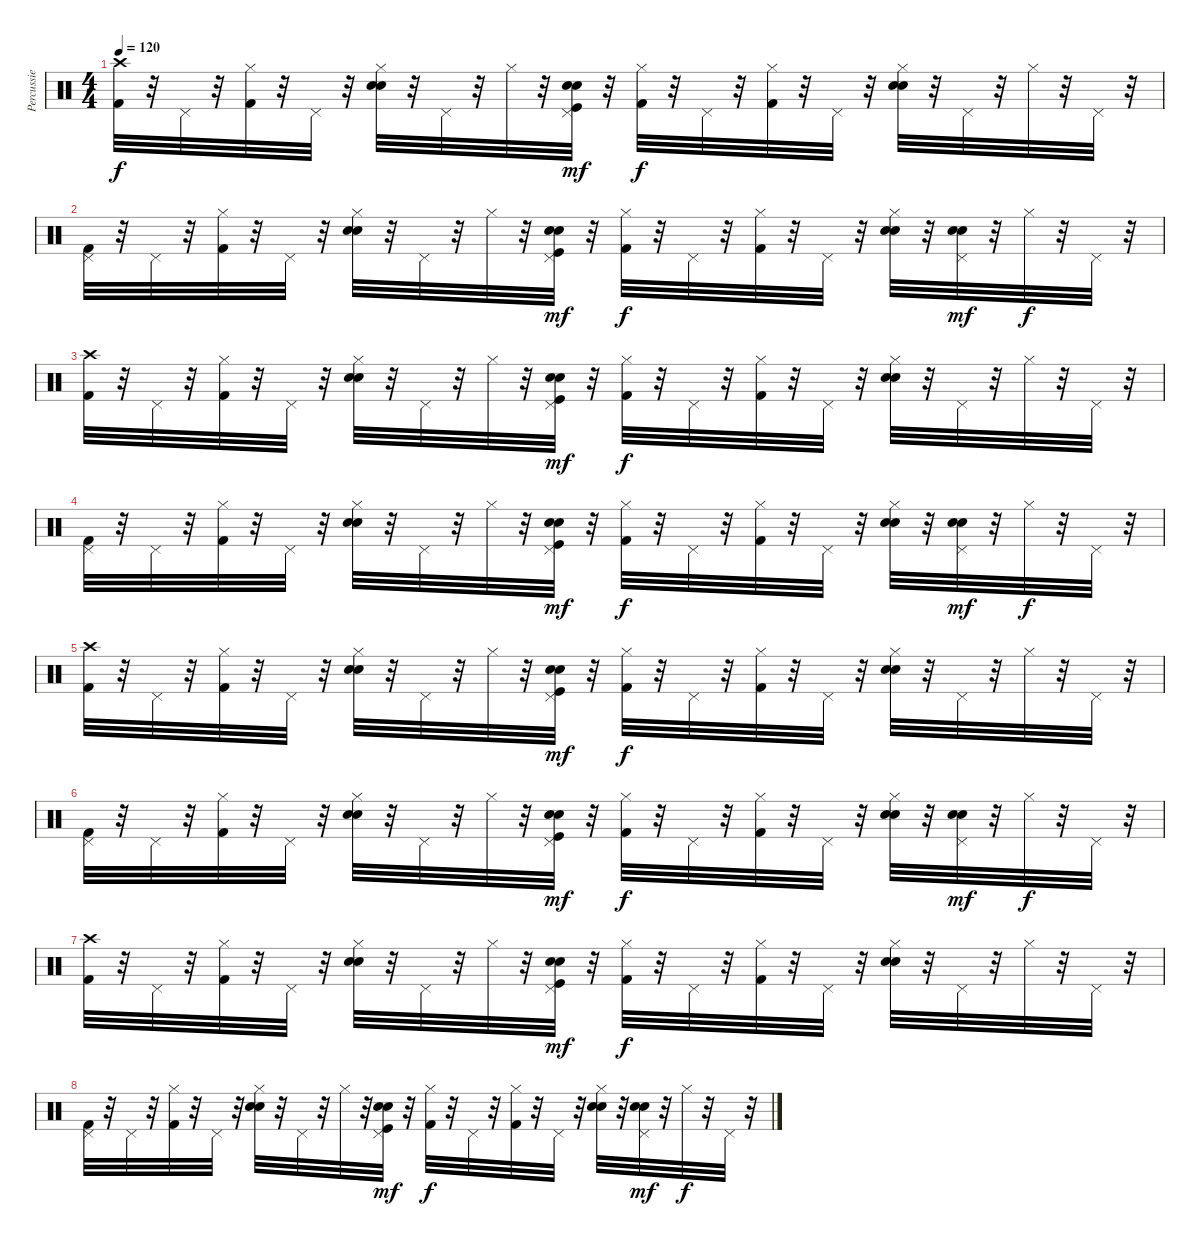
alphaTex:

\track ("Percussie" "Percussie") {instrument percussion}
\staff {score}
\articulation defaults
\ts (4 4)
\tempo 120
\clef neutral
\ks c
("Crash high (hit)" "Kick (hit) 2").32{dy f} r.32 "Pedal Hi-Hat (hit)".32 r.32 ("Hi-Hat (closed)" "Kick (hit) 2").32 r.32 "Pedal Hi-Hat (hit)".32 r.32 ("Hi-Hat (closed)" "Hand Clap (hit)" "Electric Snare (hit)").32 r.32 "Pedal Hi-Hat (hit)".32 r.32 "Hi-Hat (closed)".32 r.32 ("Hand Clap (hit)" "Electric Snare (hit)" "Pedal Hi-Hat (hit)" "Kick (hit)").32{dy mf} r.32 ("Hi-Hat (closed)" "Kick (hit) 2").32{dy f} r.32 "Pedal Hi-Hat (hit)".32 r.32 ("Hi-Hat (closed)" "Kick (hit) 2").32 r.32 "Pedal Hi-Hat (hit)".32 r.32 ("Hi-Hat (closed)" "Hand Clap (hit)" "Electric Snare (hit)").32 r.32 "Pedal Hi-Hat (hit)".32 r.32 "Hi-Hat (closed)".32 r.32 "Pedal Hi-Hat (hit)".32 r.32 |
("Pedal Hi-Hat (hit)" "Kick (hit) 2").32 r.32 "Pedal Hi-Hat (hit)".32 r.32 ("Hi-Hat (closed)" "Kick (hit) 2").32 r.32 "Pedal Hi-Hat (hit)".32 r.32 ("Hi-Hat (closed)" "Hand Clap (hit)" "Electric Snare (hit)").32 r.32 "Pedal Hi-Hat (hit)".32 r.32 "Hi-Hat (closed)".32 r.32 ("Hand Clap (hit)" "Electric Snare (hit)" "Pedal Hi-Hat (hit)" "Kick (hit)").32{dy mf} r.32 ("Hi-Hat (closed)" "Kick (hit) 2").32{dy f} r.32 "Pedal Hi-Hat (hit)".32 r.32 ("Hi-Hat (closed)" "Kick (hit) 2").32 r.32 "Pedal Hi-Hat (hit)".32 r.32 ("Hi-Hat (closed)" "Hand Clap (hit)" "Electric Snare (hit)").32 r.32 ("Hand Clap (hit)" "Electric Snare (hit)" "Pedal Hi-Hat (hit)").32{dy mf} r.32 "Hi-Hat (closed)".32{dy f} r.32 "Pedal Hi-Hat (hit)".32 r.32 |
("Crash high (hit)" "Kick (hit) 2").32 r.32 "Pedal Hi-Hat (hit)".32 r.32 ("Hi-Hat (closed)" "Kick (hit) 2").32 r.32 "Pedal Hi-Hat (hit)".32 r.32 ("Hi-Hat (closed)" "Hand Clap (hit)" "Electric Snare (hit)").32 r.32 "Pedal Hi-Hat (hit)".32 r.32 "Hi-Hat (closed)".32 r.32 ("Hand Clap (hit)" "Electric Snare (hit)" "Pedal Hi-Hat (hit)" "Kick (hit)").32{dy mf} r.32 ("Hi-Hat (closed)" "Kick (hit) 2").32{dy f} r.32 "Pedal Hi-Hat (hit)".32 r.32 ("Hi-Hat (closed)" "Kick (hit) 2").32 r.32 "Pedal Hi-Hat (hit)".32 r.32 ("Hi-Hat (closed)" "Hand Clap (hit)" "Electric Snare (hit)").32 r.32 "Pedal Hi-Hat (hit)".32 r.32 "Hi-Hat (closed)".32 r.32 "Pedal Hi-Hat (hit)".32 r.32 |
("Pedal Hi-Hat (hit)" "Kick (hit) 2").32 r.32 "Pedal Hi-Hat (hit)".32 r.32 ("Hi-Hat (closed)" "Kick (hit) 2").32 r.32 "Pedal Hi-Hat (hit)".32 r.32 ("Hi-Hat (closed)" "Hand Clap (hit)" "Electric Snare (hit)").32 r.32 "Pedal Hi-Hat (hit)".32 r.32 "Hi-Hat (closed)".32 r.32 ("Hand Clap (hit)" "Electric Snare (hit)" "Pedal Hi-Hat (hit)" "Kick (hit)").32{dy mf} r.32 ("Hi-Hat (closed)" "Kick (hit) 2").32{dy f} r.32 "Pedal Hi-Hat (hit)".32 r.32 ("Hi-Hat (closed)" "Kick (hit) 2").32 r.32 "Pedal Hi-Hat (hit)".32 r.32 ("Hi-Hat (closed)" "Hand Clap (hit)" "Electric Snare (hit)").32 r.32 ("Hand Clap (hit)" "Electric Snare (hit)" "Pedal Hi-Hat (hit)").32{dy mf} r.32 "Hi-Hat (closed)".32{dy f} r.32 "Pedal Hi-Hat (hit)".32 r.32 |
("Crash high (hit)" "Kick (hit) 2").32 r.32 "Pedal Hi-Hat (hit)".32 r.32 ("Hi-Hat (closed)" "Kick (hit) 2").32 r.32 "Pedal Hi-Hat (hit)".32 r.32 ("Hi-Hat (closed)" "Hand Clap (hit)" "Electric Snare (hit)").32 r.32 "Pedal Hi-Hat (hit)".32 r.32 "Hi-Hat (closed)".32 r.32 ("Hand Clap (hit)" "Electric Snare (hit)" "Pedal Hi-Hat (hit)" "Kick (hit)").32{dy mf} r.32 ("Hi-Hat (closed)" "Kick (hit) 2").32{dy f} r.32 "Pedal Hi-Hat (hit)".32 r.32 ("Hi-Hat (closed)" "Kick (hit) 2").32 r.32 "Pedal Hi-Hat (hit)".32 r.32 ("Hi-Hat (closed)" "Hand Clap (hit)" "Electric Snare (hit)").32 r.32 "Pedal Hi-Hat (hit)".32 r.32 "Hi-Hat (closed)".32 r.32 "Pedal Hi-Hat (hit)".32 r.32 |
("Pedal Hi-Hat (hit)" "Kick (hit) 2").32 r.32 "Pedal Hi-Hat (hit)".32 r.32 ("Hi-Hat (closed)" "Kick (hit) 2").32 r.32 "Pedal Hi-Hat (hit)".32 r.32 ("Hi-Hat (closed)" "Hand Clap (hit)" "Electric Snare (hit)").32 r.32 "Pedal Hi-Hat (hit)".32 r.32 "Hi-Hat (closed)".32 r.32 ("Hand Clap (hit)" "Electric Snare (hit)" "Pedal Hi-Hat (hit)" "Kick (hit)").32{dy mf} r.32 ("Hi-Hat (closed)" "Kick (hit) 2").32{dy f} r.32 "Pedal Hi-Hat (hit)".32 r.32 ("Hi-Hat (closed)" "Kick (hit) 2").32 r.32 "Pedal Hi-Hat (hit)".32 r.32 ("Hi-Hat (closed)" "Hand Clap (hit)" "Electric Snare (hit)").32 r.32 ("Hand Clap (hit)" "Electric Snare (hit)" "Pedal Hi-Hat (hit)").32{dy mf} r.32 "Hi-Hat (closed)".32{dy f} r.32 "Pedal Hi-Hat (hit)".32 r.32 |
("Crash high (hit)" "Kick (hit) 2").32 r.32 "Pedal Hi-Hat (hit)".32 r.32 ("Hi-Hat (closed)" "Kick (hit) 2").32 r.32 "Pedal Hi-Hat (hit)".32 r.32 ("Hi-Hat (closed)" "Hand Clap (hit)" "Electric Snare (hit)").32 r.32 "Pedal Hi-Hat (hit)".32 r.32 "Hi-Hat (closed)".32 r.32 ("Hand Clap (hit)" "Electric Snare (hit)" "Pedal Hi-Hat (hit)" "Kick (hit)").32{dy mf} r.32 ("Hi-Hat (closed)" "Kick (hit) 2").32{dy f} r.32 "Pedal Hi-Hat (hit)".32 r.32 ("Hi-Hat (closed)" "Kick (hit) 2").32 r.32 "Pedal Hi-Hat (hit)".32 r.32 ("Hi-Hat (closed)" "Hand Clap (hit)" "Electric Snare (hit)").32 r.32 "Pedal Hi-Hat (hit)".32 r.32 "Hi-Hat (closed)".32 r.32 "Pedal Hi-Hat (hit)".32 r.32 |
("Pedal Hi-Hat (hit)" "Kick (hit) 2").32 r.32 "Pedal Hi-Hat (hit)".32 r.32 ("Hi-Hat (closed)" "Kick (hit) 2").32 r.32 "Pedal Hi-Hat (hit)".32 r.32 ("Hi-Hat (closed)" "Hand Clap (hit)" "Electric Snare (hit)").32 r.32 "Pedal Hi-Hat (hit)".32 r.32 "Hi-Hat (closed)".32 r.32 ("Hand Clap (hit)" "Electric Snare (hit)" "Pedal Hi-Hat (hit)" "Kick (hit)").32{dy mf} r.32 ("Hi-Hat (closed)" "Kick (hit) 2").32{dy f} r.32 "Pedal Hi-Hat (hit)".32 r.32 ("Hi-Hat (closed)" "Kick (hit) 2").32 r.32 "Pedal Hi-Hat (hit)".32 r.32 ("Hi-Hat (closed)" "Hand Clap (hit)" "Electric Snare (hit)").32 r.32 ("Hand Clap (hit)" "Electric Snare (hit)" "Pedal Hi-Hat (hit)").32{dy mf} r.32 "Hi-Hat (closed)".32{dy f} r.32 "Pedal Hi-Hat (hit)".32 r.32
